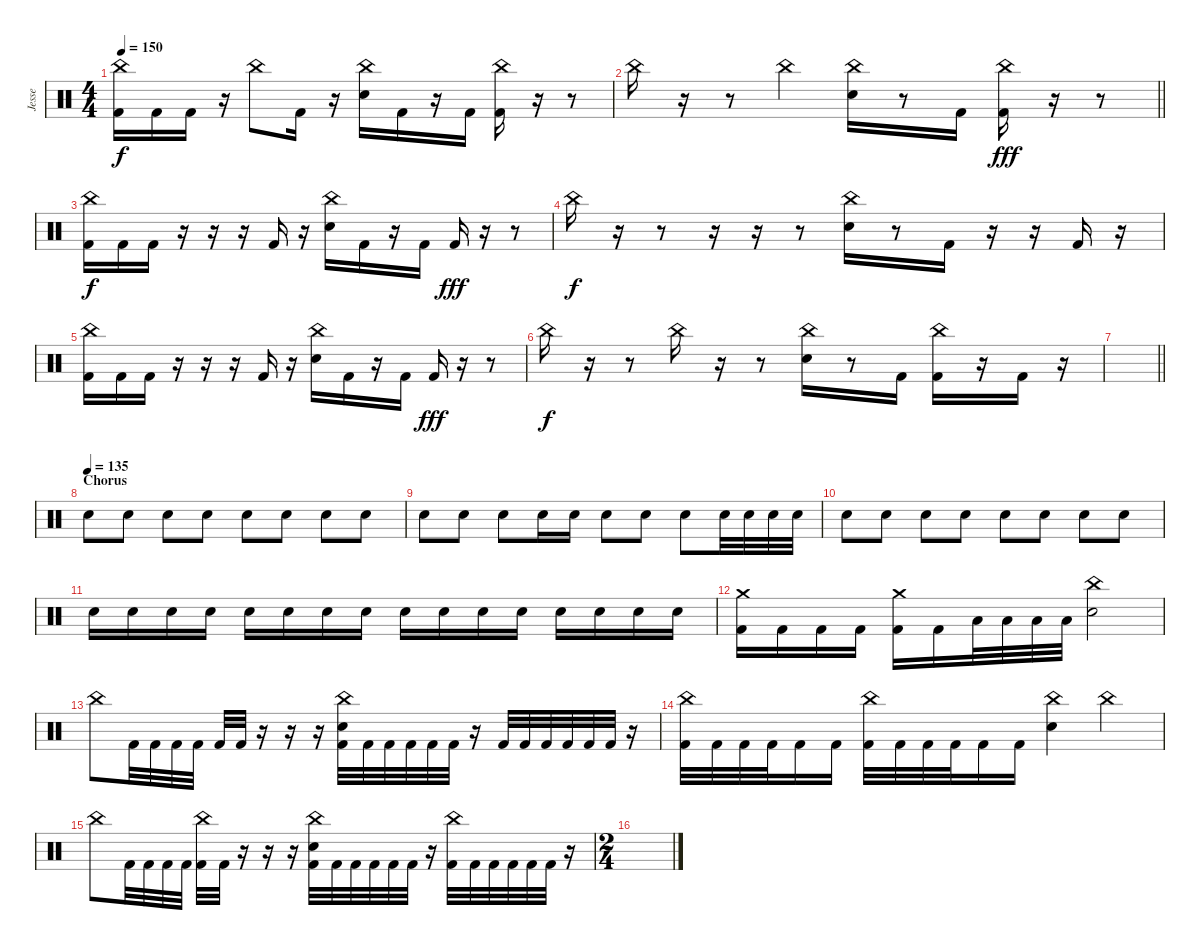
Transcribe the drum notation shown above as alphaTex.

\track ("Jesse" "Jesse") {instrument percussion}
\staff {score}
\articulation defaults
\ts (4 4)
\tempo 150
\clef neutral
\ks c
("China (hit)" "Kick (hit) 2").16{dy f} "Kick (hit) 2".16 "Kick (hit) 2".16 r.16 "China (hit)".8 "Kick (hit) 2".16 r.16 ("China (hit)" "Electric Snare (hit)").16 "Kick (hit) 2".16 r.16 "Kick (hit) 2".16 ("China (hit)" "Kick (hit) 2").16 r.16 r.8 |
\barLineRight lightlight "China (hit)".16
r.16 r.8 "China (hit)".4 ("China (hit)" "Electric Snare (hit)").16 r.8 "Kick (hit) 2".16 ("China (hit)" "Kick (hit) 2").16{dy fff} r.16 r.8 |
("China (hit)" "Kick (hit) 2").16{dy f} "Kick (hit) 2".16 "Kick (hit) 2".16 r.16 r.16 r.16 "Kick (hit) 2".16 r.16 ("China (hit)" "Electric Snare (hit)").16 "Kick (hit) 2".16 r.16 "Kick (hit) 2".16 "Kick (hit) 2".16{dy fff} r.16 r.8 |
"China (hit)".16{dy f} r.16 r.8 r.16 r.16 r.8 ("China (hit)" "Electric Snare (hit)").16 r.8 "Kick (hit) 2".16 r.16 r.16 "Kick (hit) 2".16 r.16 |
("China (hit)" "Kick (hit) 2").16 "Kick (hit) 2".16 "Kick (hit) 2".16 r.16 r.16 r.16 "Kick (hit) 2".16 r.16 ("China (hit)" "Electric Snare (hit)").16 "Kick (hit) 2".16 r.16 "Kick (hit) 2".16 "Kick (hit) 2".16{dy fff} r.16 r.8 |
"China (hit)".16{dy f} r.16 r.8 "China (hit)".16 r.16 r.8 ("China (hit)" "Electric Snare (hit)").16 r.8 "Kick (hit) 2".16 ("China (hit)" "Kick (hit) 2").16 r.16 "Kick (hit) 2".16 r.16 |
\barLineRight lightlight
|
\section ("" "Chorus")
\tempo (135)
"Electric Snare (hit)".8 "Electric Snare (hit)".8 "Electric Snare (hit)".8 "Electric Snare (hit)".8 "Electric Snare (hit)".8 "Electric Snare (hit)".8 "Electric Snare (hit)".8 "Electric Snare (hit)".8 |
"Electric Snare (hit)".8 "Electric Snare (hit)".8 "Electric Snare (hit)".8 "Electric Snare (hit)".16 "Electric Snare (hit)".16 "Electric Snare (hit)".8 "Electric Snare (hit)".8 "Electric Snare (hit)".8 "Electric Snare (hit)".32 "Electric Snare (hit)".32 "Electric Snare (hit)".32 "Electric Snare (hit)".32 |
"Electric Snare (hit)".8 "Electric Snare (hit)".8 "Electric Snare (hit)".8 "Electric Snare (hit)".8 "Electric Snare (hit)".8 "Electric Snare (hit)".8 "Electric Snare (hit)".8 "Electric Snare (hit)".8 |
"Electric Snare (hit)".16 "Electric Snare (hit)".16 "Electric Snare (hit)".16 "Electric Snare (hit)".16 "Electric Snare (hit)".16 "Electric Snare (hit)".16 "Electric Snare (hit)".16 "Electric Snare (hit)".16 "Electric Snare (hit)".16 "Electric Snare (hit)".16 "Electric Snare (hit)".16 "Electric Snare (hit)".16 "Electric Snare (hit)".16 "Electric Snare (hit)".16 "Electric Snare (hit)".16 "Electric Snare (hit)".16 |
("Crash medium (hit)" "Kick (hit) 2").16 "Kick (hit) 2".16 "Kick (hit) 2".16 "Kick (hit) 2".16 ("Crash medium (hit)" "Kick (hit) 2").16 "Kick (hit) 2".16 "Low Floor Tom (hit)".32 "Low Floor Tom (hit)".32 "Low Floor Tom (hit)".32 "Low Floor Tom (hit)".32 ("China (hit)" "Electric Snare (hit)").2 |
"China (hit)".8 "Kick (hit) 2".32 "Kick (hit) 2".32 "Kick (hit) 2".32 "Kick (hit) 2".32 "Kick (hit) 2".32 "Kick (hit) 2".32 r.16 r.16 r.16 ("China (hit)" "Kick (hit) 2" "Electric Snare (hit)").32 "Kick (hit) 2".32 "Kick (hit) 2".32 "Kick (hit) 2".32 "Kick (hit) 2".32 "Kick (hit) 2".32 r.16 "Kick (hit) 2".32 "Kick (hit) 2".32 "Kick (hit) 2".32 "Kick (hit) 2".32 "Kick (hit) 2".32 "Kick (hit) 2".32 r.16 |
("China (hit)" "Kick (hit) 2").32 "Kick (hit) 2".32 "Kick (hit) 2".32 "Kick (hit) 2".32 "Kick (hit) 2".16 "Kick (hit) 2".16 ("China (hit)" "Kick (hit) 2").32 "Kick (hit) 2".32 "Kick (hit) 2".32 "Kick (hit) 2".32 "Kick (hit) 2".16 "Kick (hit) 2".16 ("China (hit)" "Electric Snare (hit)").4 "China (hit)".4 |
"China (hit)".8 "Kick (hit) 2".32 "Kick (hit) 2".32 "Kick (hit) 2".32 "Kick (hit) 2".32 ("China (hit)" "Kick (hit) 2").32 "Kick (hit) 2".32 r.16 r.16 r.16 ("China (hit)" "Kick (hit) 2" "Electric Snare (hit)").32 "Kick (hit) 2".32 "Kick (hit) 2".32 "Kick (hit) 2".32 "Kick (hit) 2".32 "Kick (hit) 2".32 r.16 ("China (hit)" "Kick (hit) 2").32 "Kick (hit) 2".32 "Kick (hit) 2".32 "Kick (hit) 2".32 "Kick (hit) 2".32 "Kick (hit) 2".32 r.16 |
\ts (2 4)
